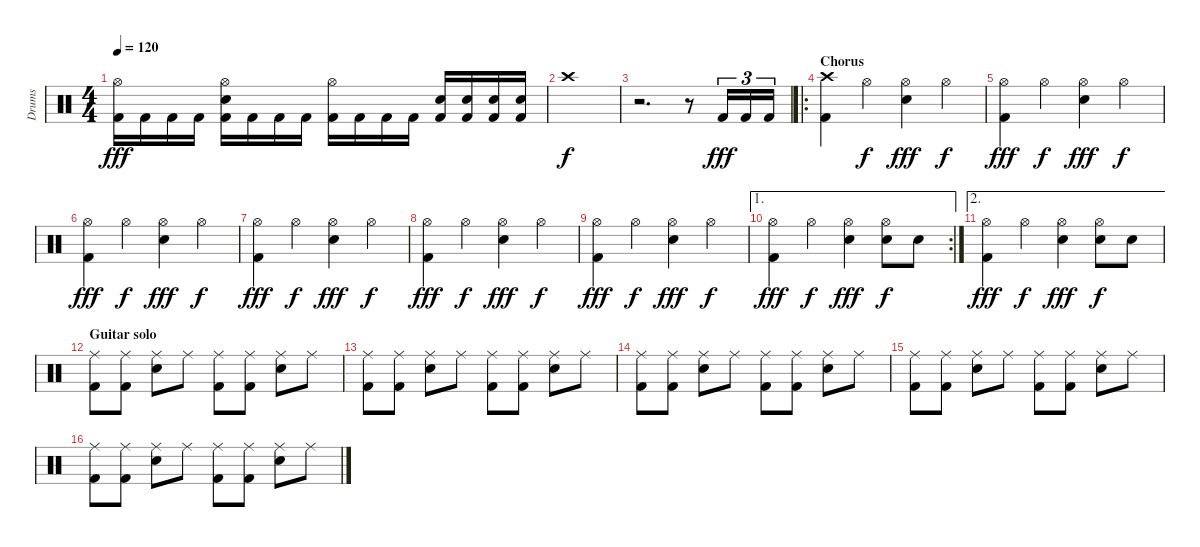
\track ("Drums" "Drums") {instrument percussion}
\staff {score}
\articulation defaults
\ts (4 4)
\tempo 120
\clef neutral
\ks c
("Hi-Hat (open)" "Kick (hit) 2").16{dy fff} "Kick (hit) 2".16 "Kick (hit) 2".16 "Kick (hit) 2".16 ("Hi-Hat (open)" "Kick (hit) 2" "Electric Snare (hit)").16 "Kick (hit) 2".16 "Kick (hit) 2".16 "Kick (hit) 2".16 ("Hi-Hat (open)" "Kick (hit) 2").16 "Kick (hit) 2".16 "Kick (hit) 2".16 "Kick (hit) 2".16 ("Kick (hit) 2" "Electric Snare (hit)").16 ("Kick (hit) 2" "Electric Snare (hit)").16 ("Kick (hit) 2" "Electric Snare (hit)").16 ("Kick (hit) 2" "Electric Snare (hit)").16 |
"Crash high (hit)".1{dy f} |
r.2{d} r.8 "Kick (hit) 2".16{tu (3 2) dy fff} "Kick (hit) 2".16{tu (3 2)} "Kick (hit) 2".16{tu (3 2)} |
\ro
\section ("" "Chorus")
("Crash high (hit)" "Kick (hit) 2").4 "Hi-Hat (open)".4{dy f} ("Hi-Hat (open)" "Electric Snare (hit)").4{dy fff} "Hi-Hat (open)".4{dy f} |
("Hi-Hat (open)" "Kick (hit) 2").4{dy fff} "Hi-Hat (open)".4{dy f} ("Hi-Hat (open)" "Electric Snare (hit)").4{dy fff} "Hi-Hat (open)".4{dy f} |
("Hi-Hat (open)" "Kick (hit) 2").4{dy fff} "Hi-Hat (open)".4{dy f} ("Hi-Hat (open)" "Electric Snare (hit)").4{dy fff} "Hi-Hat (open)".4{dy f} |
("Hi-Hat (open)" "Kick (hit) 2").4{dy fff} "Hi-Hat (open)".4{dy f} ("Hi-Hat (open)" "Electric Snare (hit)").4{dy fff} "Hi-Hat (open)".4{dy f} |
("Hi-Hat (open)" "Kick (hit) 2").4{dy fff} "Hi-Hat (open)".4{dy f} ("Hi-Hat (open)" "Electric Snare (hit)").4{dy fff} "Hi-Hat (open)".4{dy f} |
("Hi-Hat (open)" "Kick (hit) 2").4{dy fff} "Hi-Hat (open)".4{dy f} ("Hi-Hat (open)" "Electric Snare (hit)").4{dy fff} "Hi-Hat (open)".4{dy f} |
\ae 1
\rc 2
("Hi-Hat (open)" "Kick (hit) 2").4{dy fff} "Hi-Hat (open)".4{dy f} ("Hi-Hat (open)" "Electric Snare (hit)").4{dy fff} ("Hi-Hat (open)" "Electric Snare (hit)").8{dy f} "Electric Snare (hit)".8 |
\ae 2
("Hi-Hat (open)" "Kick (hit) 2").4{dy fff} "Hi-Hat (open)".4{dy f} ("Hi-Hat (open)" "Electric Snare (hit)").4{dy fff} ("Hi-Hat (open)" "Electric Snare (hit)").8{dy f} "Electric Snare (hit)".8 |
\section ("" "Guitar solo")
("Ride (middle)" "Kick (hit) 2").8 ("Ride (middle)" "Kick (hit) 2").8 ("Ride (middle)" "Electric Snare (hit)").8 "Ride (middle)".8 ("Ride (middle)" "Kick (hit) 2").8 ("Ride (middle)" "Kick (hit) 2").8 ("Ride (middle)" "Electric Snare (hit)").8 "Ride (middle)".8 |
("Ride (middle)" "Kick (hit) 2").8 ("Ride (middle)" "Kick (hit) 2").8 ("Ride (middle)" "Electric Snare (hit)").8 "Ride (middle)".8 ("Ride (middle)" "Kick (hit) 2").8 ("Ride (middle)" "Kick (hit) 2").8 ("Ride (middle)" "Electric Snare (hit)").8 "Ride (middle)".8 |
("Ride (middle)" "Kick (hit) 2").8 ("Ride (middle)" "Kick (hit) 2").8 ("Ride (middle)" "Electric Snare (hit)").8 "Ride (middle)".8 ("Ride (middle)" "Kick (hit) 2").8 ("Ride (middle)" "Kick (hit) 2").8 ("Ride (middle)" "Electric Snare (hit)").8 "Ride (middle)".8 |
("Ride (middle)" "Kick (hit) 2").8 ("Ride (middle)" "Kick (hit) 2").8 ("Ride (middle)" "Electric Snare (hit)").8 "Ride (middle)".8 ("Ride (middle)" "Kick (hit) 2").8 ("Ride (middle)" "Kick (hit) 2").8 ("Ride (middle)" "Electric Snare (hit)").8 "Ride (middle)".8 |
("Ride (middle)" "Kick (hit) 2").8 ("Ride (middle)" "Kick (hit) 2").8 ("Ride (middle)" "Electric Snare (hit)").8 "Ride (middle)".8 ("Ride (middle)" "Kick (hit) 2").8 ("Ride (middle)" "Kick (hit) 2").8 ("Ride (middle)" "Electric Snare (hit)").8 "Ride (middle)".8
